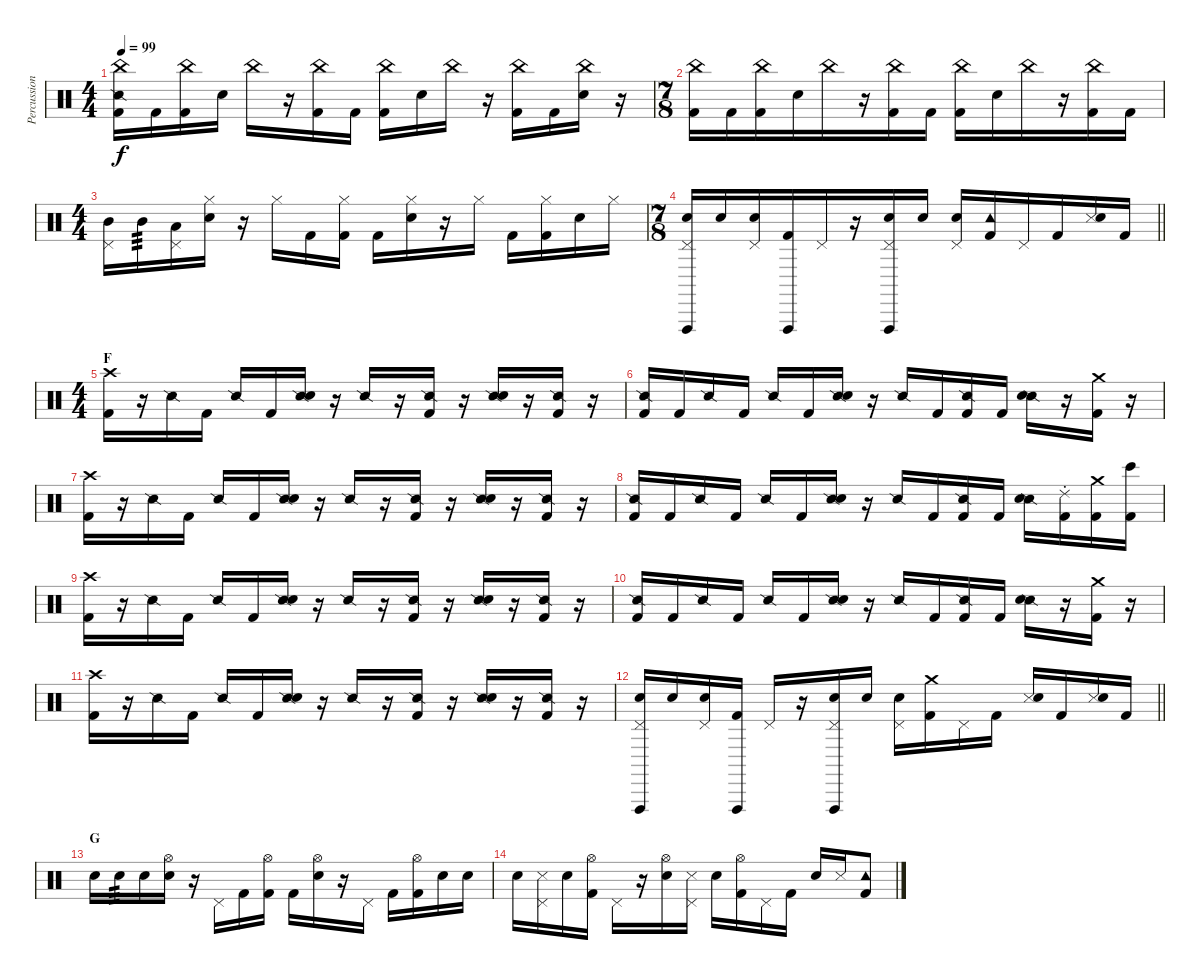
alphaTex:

\track ("Percussion" "Percussion") {instrument percussion}
\staff {score}
\articulation defaults
\ts (4 4)
\tempo 99
\clef neutral
\ks c
("China (hit)" "Snare (side stick) 2" "Kick (hit) 2").16{dy f} "Kick (hit) 2".16 ("China (hit)" "Kick (hit) 2").16 "Snare (hit) 2".16 "China (hit)".16 r.16 ("China (hit)" "Kick (hit) 2").16 "Kick (hit) 2".16 ("China (hit)" "Kick (hit) 2").16 "Snare (hit) 2".16 "China (hit)".16 r.16 ("China (hit)" "Kick (hit) 2").16 "Kick (hit) 2".16 ("China (hit)" "Snare (hit) 2").16 r.16 |
\ts (7 8)
("China (hit)" "Kick (hit) 2").16 "Kick (hit) 2".16 ("China (hit)" "Kick (hit) 2").16 "Snare (hit) 2".16 "China (hit)".16 r.16 ("China (hit)" "Kick (hit) 2").16 "Kick (hit) 2".16 ("China (hit)" "Kick (hit) 2").16 "Snare (hit) 2".16 "China (hit)".16 r.16 ("China (hit)" "Kick (hit) 2").16 "Kick (hit) 2".16 |
\ts (4 4)
("Pedal Hi-Hat (hit)" "Mid Tom (hit)").16 "Mid Tom (hit)".16{tp 3} ("Pedal Hi-Hat (hit)" "Low Tom (hit)").16 ("Hi-Hat (closed)" "Snare (hit) 2").16 r.16 "Hi-Hat (closed)".16 "Kick (hit) 2".16 ("Hi-Hat (closed)" "Kick (hit) 2").16 "Kick (hit) 2".16 ("Hi-Hat (closed)" "Snare (hit) 2").16 r.16 "Hi-Hat (closed)".16 "Kick (hit) 2".16 ("Hi-Hat (closed)" "Kick (hit) 2").16 "Snare (hit) 2".16 "Hi-Hat (closed)".16 |
\ts (7 8)
\barLineRight lightlight
("Vibraslap (hit)" "Pedal Hi-Hat (hit)" "Snare (hit) 2").16 "Snare (hit) 2".16 ("Pedal Hi-Hat (hit)" "Snare (hit) 2").16 ("Vibraslap (hit)" "Kick (hit) 2").16 "Pedal Hi-Hat (hit)".16 r.16 ("Vibraslap (hit)" "Pedal Hi-Hat (hit)" "Snare (hit) 2").16 "Snare (hit) 2".16 ("Pedal Hi-Hat (hit)" "Snare (hit) 2").16 ("Tambourine (hit)" "Kick (hit) 2").16 "Pedal Hi-Hat (hit)".16 "Kick (hit) 2".16 ("Metronome (hit)" "Snare (hit) 2").16{bu 120} "Kick (hit) 2".16 |
\ts (4 4)
\section ("" "F")
("Crash high (hit)" "Kick (hit) 2").16 r.16 "Snare (side stick) 2".16 "Kick (hit) 2".16 "Snare (side stick) 2".16 "Kick (hit) 2".16 ("Snare (side stick) 2" "Snare (hit) 2").16 r.16 "Snare (side stick) 2".16 r.16 ("Snare (side stick) 2" "Kick (hit) 2").16 r.16 ("Snare (side stick) 2" "Snare (hit) 2").16 r.16 ("Snare (side stick) 2" "Kick (hit) 2").16 r.16 |
("Snare (side stick) 2" "Kick (hit) 2").16 "Kick (hit) 2".16 "Snare (side stick) 2".16 "Kick (hit) 2".16 "Snare (side stick) 2".16 "Kick (hit) 2".16 ("Snare (side stick) 2" "Snare (hit) 2").16 r.16 "Snare (side stick) 2".16 "Kick (hit) 2".16 ("Snare (side stick) 2" "Kick (hit) 2").16 "Kick (hit) 2".16 ("Snare (side stick) 2" "Snare (hit) 2").16 r.16 ("Crash medium (hit)" "Kick (hit) 2").16 r.16 |
("Crash high (hit)" "Kick (hit) 2").16 r.16 "Snare (side stick) 2".16 "Kick (hit) 2".16 "Snare (side stick) 2".16 "Kick (hit) 2".16 ("Snare (side stick) 2" "Snare (hit) 2").16 r.16 "Snare (side stick) 2".16 r.16 ("Snare (side stick) 2" "Kick (hit) 2").16 r.16 ("Snare (side stick) 2" "Snare (hit) 2").16 r.16 ("Snare (side stick) 2" "Kick (hit) 2").16 r.16 |
("Snare (side stick) 2" "Kick (hit) 2").16 "Kick (hit) 2".16 "Snare (side stick) 2".16 "Kick (hit) 2".16 "Snare (side stick) 2".16 "Kick (hit) 2".16 ("Snare (side stick) 2" "Snare (hit) 2").16 r.16 "Snare (side stick) 2".16 "Kick (hit) 2".16 ("Snare (side stick) 2" "Kick (hit) 2").16 "Kick (hit) 2".16 ("Snare (side stick) 2" "Snare (hit) 2").16 ("Ride (choke) 2" "Kick (hit) 2").16 ("Crash medium (hit)" "Kick (hit) 2").16 ("Bongo High (hit)" "Kick (hit) 2").16 |
("Crash high (hit)" "Kick (hit) 2").16 r.16 "Snare (side stick) 2".16 "Kick (hit) 2".16 "Snare (side stick) 2".16 "Kick (hit) 2".16 ("Snare (side stick) 2" "Snare (hit) 2").16 r.16 "Snare (side stick) 2".16 r.16 ("Snare (side stick) 2" "Kick (hit) 2").16 r.16 ("Snare (side stick) 2" "Snare (hit) 2").16 r.16 ("Snare (side stick) 2" "Kick (hit) 2").16 r.16 |
("Snare (side stick) 2" "Kick (hit) 2").16 "Kick (hit) 2".16 "Snare (side stick) 2".16 "Kick (hit) 2".16 "Snare (side stick) 2".16 "Kick (hit) 2".16 ("Snare (side stick) 2" "Snare (hit) 2").16 r.16 "Snare (side stick) 2".16 "Kick (hit) 2".16 ("Snare (side stick) 2" "Kick (hit) 2").16 "Kick (hit) 2".16 ("Snare (side stick) 2" "Snare (hit) 2").16 r.16 ("Crash medium (hit)" "Kick (hit) 2").16 r.16 |
("Crash high (hit)" "Kick (hit) 2").16 r.16 "Snare (side stick) 2".16 "Kick (hit) 2".16 "Snare (side stick) 2".16 "Kick (hit) 2".16 ("Snare (side stick) 2" "Snare (hit) 2").16 r.16 "Snare (side stick) 2".16 r.16 ("Snare (side stick) 2" "Kick (hit) 2").16 r.16 ("Snare (side stick) 2" "Snare (hit) 2").16 r.16 ("Snare (side stick) 2" "Kick (hit) 2").16 r.16 |
\barLineRight lightlight
("Vibraslap (hit)" "Pedal Hi-Hat (hit)" "Snare (hit) 2").16 "Snare (hit) 2".16 ("Pedal Hi-Hat (hit)" "Snare (hit) 2").16 ("Vibraslap (hit)" "Kick (hit) 2").16 "Pedal Hi-Hat (hit)".16 r.16 ("Vibraslap (hit)" "Pedal Hi-Hat (hit)" "Snare (hit) 2").16 "Snare (hit) 2".16 ("Pedal Hi-Hat (hit)" "Snare (hit) 2").16 ("Crash medium (hit)" "Kick (hit) 2").16 "Pedal Hi-Hat (hit)".16 "Kick (hit) 2".16 ("Metronome (hit)" "Snare (hit) 2").16{bu 120} "Kick (hit) 2".16 ("Metronome (hit)" "Snare (hit) 2").16{bu 120} "Kick (hit) 2".16 |
\section ("" "G")
"Snare (hit) 2".16 "Snare (hit) 2".16{tp 3} "Snare (hit) 2".16 ("Hi-Hat (open)" "Snare (hit) 2").16 r.16 "Pedal Hi-Hat (hit)".16 "Kick (hit) 2".16 ("Hi-Hat (open)" "Kick (hit) 2").16 "Kick (hit) 2".16 ("Hi-Hat (open)" "Snare (hit) 2").16 r.16 "Pedal Hi-Hat (hit)".16 "Kick (hit) 2".16 ("Hi-Hat (open)" "Kick (hit) 2").16 "Snare (hit) 2".16 "Snare (hit)".16 |
"Snare (hit) 2".16 ("Pedal Hi-Hat (hit)" "Metronome (hit)").16 "Snare (hit) 2".16 ("Hi-Hat (open)" "Kick (hit) 2").16 "Pedal Hi-Hat (hit)".16 r.16 ("Hi-Hat (open)" "Snare (hit) 2").16 ("Pedal Hi-Hat (hit)" "Metronome (hit)").16 "Snare (hit) 2".16 ("Hi-Hat (open)" "Kick (hit) 2").16 "Pedal Hi-Hat (hit)".16 "Kick (hit) 2".16 "Snare (hit) 2".16 "Metronome (hit)".16 ("Tambourine (hit)" "Kick (hit) 2").8
